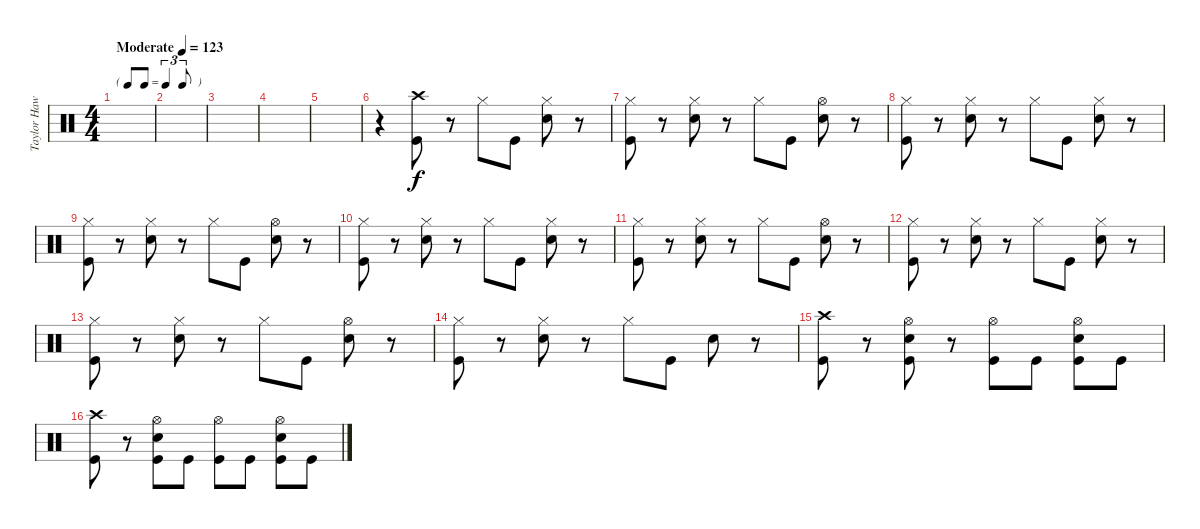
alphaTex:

\track ("Taylor Hawkins - Drums" "Taylor Haw") {instrument percussion}
\staff {score}
\articulation defaults
\ts (4 4)
\tf triplet8th
\tempo (123 "Moderate")
\clef neutral
\ks c
|
|
|
|
|
r.4 ("Crash high (hit)" "Kick (hit)").8 r.8 "Hi-Hat (closed)".8 "Kick (hit)".8 ("Hi-Hat (closed)" "Electric Snare (hit)").8 r.8 |
("Hi-Hat (closed)" "Kick (hit)").8 r.8 ("Hi-Hat (closed)" "Electric Snare (hit)").8 r.8 "Hi-Hat (closed)".8 "Kick (hit)".8 ("Hi-Hat (open)" "Electric Snare (hit)").8 r.8 |
("Hi-Hat (closed)" "Kick (hit)").8 r.8 ("Hi-Hat (closed)" "Electric Snare (hit)").8 r.8 "Hi-Hat (closed)".8 "Kick (hit)".8 ("Hi-Hat (closed)" "Electric Snare (hit)").8 r.8 |
("Hi-Hat (closed)" "Kick (hit)").8 r.8 ("Hi-Hat (closed)" "Electric Snare (hit)").8 r.8 "Hi-Hat (closed)".8 "Kick (hit)".8 ("Hi-Hat (open)" "Electric Snare (hit)").8 r.8 |
("Hi-Hat (closed)" "Kick (hit)").8 r.8 ("Hi-Hat (closed)" "Electric Snare (hit)").8 r.8 "Hi-Hat (closed)".8 "Kick (hit)".8 ("Hi-Hat (closed)" "Electric Snare (hit)").8 r.8 |
("Hi-Hat (closed)" "Kick (hit)").8 r.8 ("Hi-Hat (closed)" "Electric Snare (hit)").8 r.8 "Hi-Hat (closed)".8 "Kick (hit)".8 ("Hi-Hat (open)" "Electric Snare (hit)").8 r.8 |
("Hi-Hat (closed)" "Kick (hit)").8 r.8 ("Hi-Hat (closed)" "Electric Snare (hit)").8 r.8 "Hi-Hat (closed)".8 "Kick (hit)".8 ("Hi-Hat (closed)" "Electric Snare (hit)").8 r.8 |
("Hi-Hat (closed)" "Kick (hit)").8 r.8 ("Hi-Hat (closed)" "Electric Snare (hit)").8 r.8 "Hi-Hat (closed)".8 "Kick (hit)".8 ("Hi-Hat (open)" "Electric Snare (hit)").8 r.8 |
("Hi-Hat (closed)" "Kick (hit)").8 r.8 ("Hi-Hat (closed)" "Electric Snare (hit)").8 r.8 "Hi-Hat (closed)".8 "Kick (hit)".8 "Electric Snare (hit)".8 r.8 |
("Crash high (hit)" "Kick (hit)").8 r.8 ("Hi-Hat (open)" "Electric Snare (hit)" "Kick (hit)").8 r.8 ("Hi-Hat (open)" "Kick (hit)").8 "Kick (hit)".8 ("Hi-Hat (open)" "Electric Snare (hit)" "Kick (hit)").8 "Kick (hit)".8 |
("Crash high (hit)" "Kick (hit)").8 r.8 ("Hi-Hat (open)" "Electric Snare (hit)" "Kick (hit)").8 "Kick (hit)".8 ("Hi-Hat (open)" "Kick (hit)").8 "Kick (hit)".8 ("Hi-Hat (open)" "Electric Snare (hit)" "Kick (hit)").8 "Kick (hit)".8
